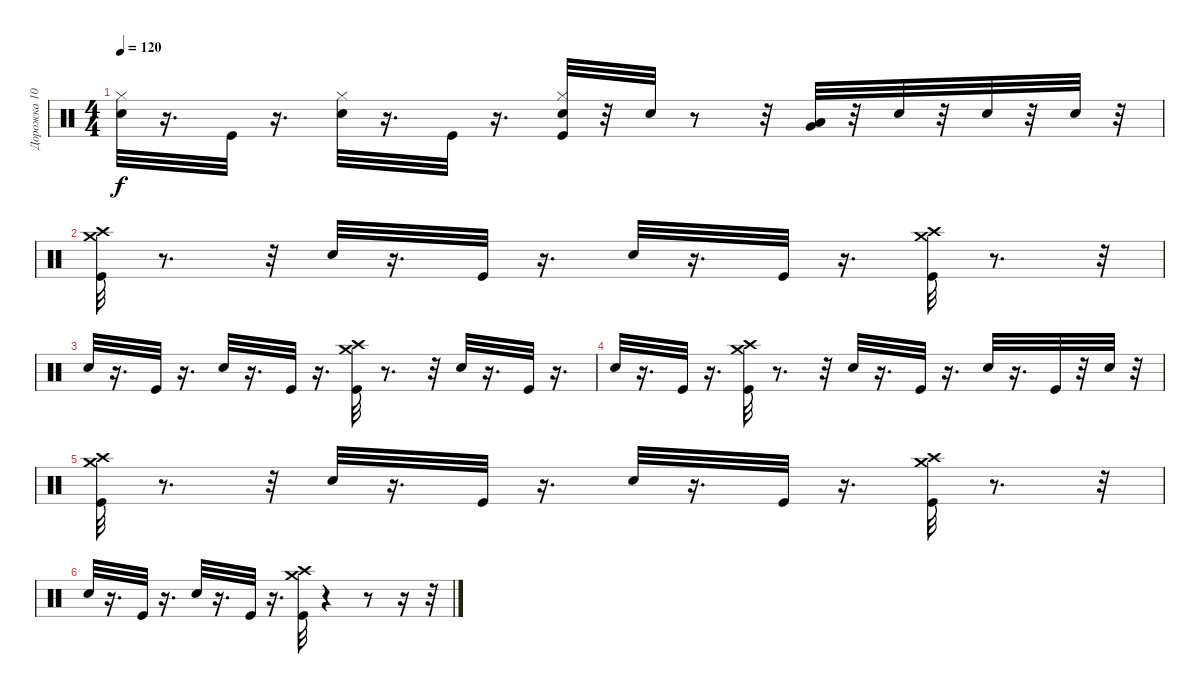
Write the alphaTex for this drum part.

\track ("Дорожка 10" "Дорожка 10") {instrument percussion}
\staff {score}
\articulation defaults
\ts (4 4)
\tempo 120
\clef neutral
\ks c
("Snare (hit) 2" "Hi-Hat (closed)").32{dy f} r.16{d} "Kick (hit)".32 r.16{d} ("Hi-Hat (closed)" "Snare (hit) 2").32 r.16{d} "Kick (hit)".32 r.16{d} ("Kick (hit)" "Snare (hit) 2" "Hi-Hat (closed)").32 r.32 "Snare (hit) 2".32 r.8 r.32 ("Very Low Tom (hit)" "Low Floor Tom (hit)").32 r.32 "Snare (hit) 2".32 r.32 "Snare (hit) 2".32 r.32 "Snare (hit) 2".32 r.32 |
("Crash high (hit)" "Kick (hit)" "Crash medium (hit)").32 r.8{d} r.32 "Snare (hit) 2".32 r.16{d} "Kick (hit)".32 r.16{d} "Snare (hit) 2".32 r.16{d} "Kick (hit)".32 r.16{d} ("Crash high (hit)" "Crash medium (hit)" "Kick (hit)").32 r.8{d} r.32 |
"Snare (hit) 2".32 r.16{d} "Kick (hit)".32 r.16{d} "Snare (hit) 2".32 r.16{d} "Kick (hit)".32 r.16{d} ("Crash high (hit)" "Crash medium (hit)" "Kick (hit)").32 r.8{d} r.32 "Snare (hit) 2".32 r.16{d} "Kick (hit)".32 r.16{d} |
"Snare (hit) 2".32 r.16{d} "Kick (hit)".32 r.16{d} ("Kick (hit)" "Crash medium (hit)" "Crash high (hit)").32 r.8{d} r.32 "Snare (hit) 2".32 r.16{d} "Kick (hit)".32 r.16{d} "Snare (hit) 2".32 r.16{d} "Kick (hit)".32 r.32 "Snare (hit) 2".32 r.32 |
("Crash high (hit)" "Crash medium (hit)" "Kick (hit)").32 r.8{d} r.32 "Snare (hit) 2".32 r.16{d} "Kick (hit)".32 r.16{d} "Snare (hit) 2".32 r.16{d} "Kick (hit)".32 r.16{d} ("Crash medium (hit)" "Crash high (hit)" "Kick (hit)").32 r.8{d} r.32 |
"Snare (hit) 2".32 r.16{d} "Kick (hit)".32 r.16{d} "Snare (hit) 2".32 r.16{d} "Kick (hit)".32 r.16{d} ("Crash medium (hit)" "Crash high (hit)" "Kick (hit)").32 r.4 r.8 r.16 r.32
